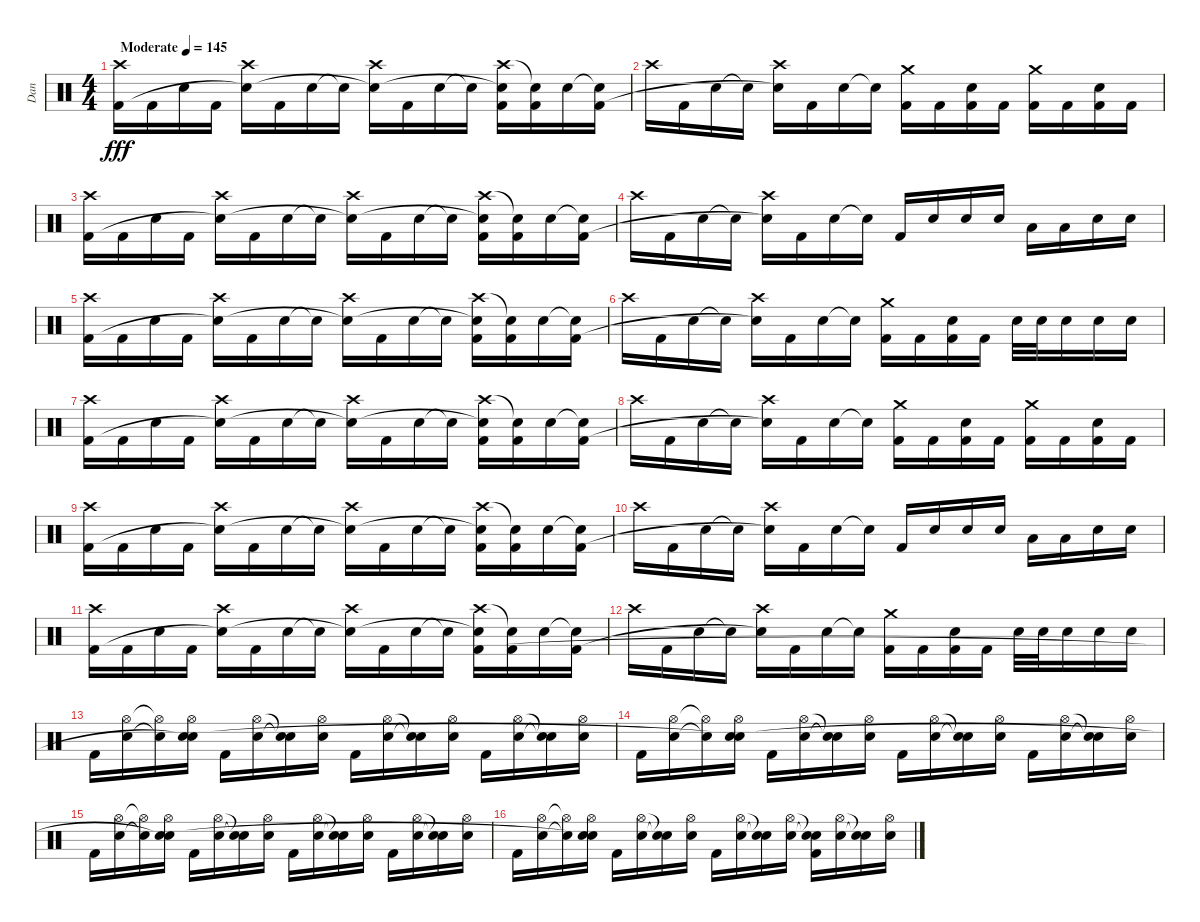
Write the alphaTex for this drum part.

\track ("Dan" "Dan") {instrument percussion}
\staff {score}
\articulation defaults
\ts (4 4)
\tempo (145 "Moderate")
\tempo 120
\tempo (145 "Moderate")
\clef neutral
\ks c
("Crash high (hit)" "Kick (hit) 2").16{dy fff} "Kick (hit) 2".16 "Electric Snare (hit)".16 "Kick (hit) 2".16 ("Crash high (hit)" "Snare (hit)"{t}).16 "Kick (hit) 2".16 "Electric Snare (hit)".16 "Snare (hit)"{t}.16 ("Crash high (hit)" "Snare (hit)"{t}).16 "Kick (hit) 2".16 "Electric Snare (hit)".16 "Snare (hit)"{t}.16 ("Crash high (hit)" "Snare (hit)"{t} "Kick (hit) 2").16 ("Snare (hit)"{t} "Kick (hit) 2").16 "Electric Snare (hit)".16 ("Snare (hit)"{t} "Kick (hit) 2").16 |
"Crash high (hit)".16 "Kick (hit) 2".16 "Electric Snare (hit)".16 "Snare (hit)"{t}.16 ("Crash high (hit)" "Snare (hit)"{t}).16 "Kick (hit) 2".16 "Electric Snare (hit)".16 "Snare (hit)"{t}.16 ("Crash medium (hit)" "Kick (hit) 2").16 "Kick (hit) 2".16 ("Electric Snare (hit)" "Kick (hit) 2").16 "Kick (hit) 2".16 ("Crash medium (hit)" "Kick (hit) 2").16 "Kick (hit) 2".16 ("Electric Snare (hit)" "Kick (hit) 2").16 "Kick (hit) 2".16 |
("Crash high (hit)" "Kick (hit) 2").16 "Kick (hit) 2".16 "Electric Snare (hit)".16 "Kick (hit) 2".16 ("Crash high (hit)" "Snare (hit)"{t}).16 "Kick (hit) 2".16 "Electric Snare (hit)".16 "Snare (hit)"{t}.16 ("Crash high (hit)" "Snare (hit)"{t}).16 "Kick (hit) 2".16 "Electric Snare (hit)".16 "Snare (hit)"{t}.16 ("Crash high (hit)" "Snare (hit)"{t} "Kick (hit) 2").16 ("Snare (hit)"{t} "Kick (hit) 2").16 "Electric Snare (hit)".16 ("Snare (hit)"{t} "Kick (hit) 2").16 |
"Crash high (hit)".16 "Kick (hit) 2".16 "Electric Snare (hit)".16 "Snare (hit)"{t}.16 ("Crash high (hit)" "Snare (hit)"{t}).16 "Kick (hit) 2".16 "Electric Snare (hit)".16 "Snare (hit)"{t}.16 "Kick (hit) 2".16 "Electric Snare (hit)".16 "Electric Snare (hit)".16 "Electric Snare (hit)".16 "Low Floor Tom (hit)".16 "Low Floor Tom (hit)".16 "Electric Snare (hit)".16 "Electric Snare (hit)".16 |
("Crash high (hit)" "Kick (hit) 2").16 "Kick (hit) 2".16 "Electric Snare (hit)".16 "Kick (hit) 2".16 ("Crash high (hit)" "Snare (hit)"{t}).16 "Kick (hit) 2".16 "Electric Snare (hit)".16 "Snare (hit)"{t}.16 ("Crash high (hit)" "Snare (hit)"{t}).16 "Kick (hit) 2".16 "Electric Snare (hit)".16 "Snare (hit)"{t}.16 ("Crash high (hit)" "Snare (hit)"{t} "Kick (hit) 2").16 ("Snare (hit)"{t} "Kick (hit) 2").16 "Electric Snare (hit)".16 ("Snare (hit)"{t} "Kick (hit) 2").16 |
"Crash high (hit)".16 "Kick (hit) 2".16 "Electric Snare (hit)".16 "Snare (hit)"{t}.16 ("Crash high (hit)" "Snare (hit)"{t}).16 "Kick (hit) 2".16 "Electric Snare (hit)".16 "Snare (hit)"{t}.16 ("Crash medium (hit)" "Kick (hit) 2").16 "Kick (hit) 2".16 ("Electric Snare (hit)" "Kick (hit) 2").16 "Kick (hit) 2".16 "Electric Snare (hit)".32 "Electric Snare (hit)".32 "Electric Snare (hit)".16 "Electric Snare (hit)".16 "Electric Snare (hit)".16 |
("Crash high (hit)" "Kick (hit) 2").16 "Kick (hit) 2".16 "Electric Snare (hit)".16 "Kick (hit) 2".16 ("Crash high (hit)" "Snare (hit)"{t}).16 "Kick (hit) 2".16 "Electric Snare (hit)".16 "Snare (hit)"{t}.16 ("Crash high (hit)" "Snare (hit)"{t}).16 "Kick (hit) 2".16 "Electric Snare (hit)".16 "Snare (hit)"{t}.16 ("Crash high (hit)" "Snare (hit)"{t} "Kick (hit) 2").16 ("Snare (hit)"{t} "Kick (hit) 2").16 "Electric Snare (hit)".16 ("Snare (hit)"{t} "Kick (hit) 2").16 |
"Crash high (hit)".16 "Kick (hit) 2".16 "Electric Snare (hit)".16 "Snare (hit)"{t}.16 ("Crash high (hit)" "Snare (hit)"{t}).16 "Kick (hit) 2".16 "Electric Snare (hit)".16 "Snare (hit)"{t}.16 ("Crash medium (hit)" "Kick (hit) 2").16 "Kick (hit) 2".16 ("Electric Snare (hit)" "Kick (hit) 2").16 "Kick (hit) 2".16 ("Crash medium (hit)" "Kick (hit) 2").16 "Kick (hit) 2".16 ("Electric Snare (hit)" "Kick (hit) 2").16 "Kick (hit) 2".16 |
("Crash high (hit)" "Kick (hit) 2").16 "Kick (hit) 2".16 "Electric Snare (hit)".16 "Kick (hit) 2".16 ("Crash high (hit)" "Snare (hit)"{t}).16 "Kick (hit) 2".16 "Electric Snare (hit)".16 "Snare (hit)"{t}.16 ("Crash high (hit)" "Snare (hit)"{t}).16 "Kick (hit) 2".16 "Electric Snare (hit)".16 "Snare (hit)"{t}.16 ("Crash high (hit)" "Snare (hit)"{t} "Kick (hit) 2").16 ("Snare (hit)"{t} "Kick (hit) 2").16 "Electric Snare (hit)".16 ("Snare (hit)"{t} "Kick (hit) 2").16 |
"Crash high (hit)".16 "Kick (hit) 2".16 "Electric Snare (hit)".16 "Snare (hit)"{t}.16 ("Crash high (hit)" "Snare (hit)"{t}).16 "Kick (hit) 2".16 "Electric Snare (hit)".16 "Snare (hit)"{t}.16 "Kick (hit) 2".16 "Electric Snare (hit)".16 "Electric Snare (hit)".16 "Electric Snare (hit)".16 "Low Floor Tom (hit)".16 "Low Floor Tom (hit)".16 "Electric Snare (hit)".16 "Electric Snare (hit)".16 |
("Crash high (hit)" "Kick (hit) 2").16 "Kick (hit) 2".16 "Electric Snare (hit)".16 "Kick (hit) 2".16 ("Crash high (hit)" "Snare (hit)"{t}).16 "Kick (hit) 2".16 "Electric Snare (hit)".16 "Snare (hit)"{t}.16 ("Crash high (hit)" "Snare (hit)"{t}).16 "Kick (hit) 2".16 "Electric Snare (hit)".16 "Snare (hit)"{t}.16 ("Crash high (hit)" "Snare (hit)"{t} "Kick (hit) 2").16 ("Snare (hit)"{t} "Kick (hit) 2").16 "Electric Snare (hit)".16 ("Snare (hit)"{t} "Kick (hit) 2").16 |
"Crash high (hit)".16 "Kick (hit) 2".16 "Electric Snare (hit)".16 "Snare (hit)"{t}.16 ("Crash high (hit)" "Snare (hit)"{t}).16 "Kick (hit) 2".16 "Electric Snare (hit)".16 "Snare (hit)"{t}.16 ("Crash medium (hit)" "Kick (hit) 2").16 "Kick (hit) 2".16 ("Electric Snare (hit)" "Kick (hit) 2").16 "Kick (hit) 2".16 "Electric Snare (hit)".32 "Electric Snare (hit)".32 "Electric Snare (hit)".16 "Electric Snare (hit)".16 "Electric Snare (hit)".16 |
"Kick (hit) 2".16 ("Hi-Hat (open)" "Electric Snare (hit)").16 ("Hi-Hat (open)"{t} "Snare (hit)"{t}).16 ("Hi-Hat (open)" "Electric Snare (hit)" "Snare (hit)"{t}).16 "Kick (hit) 2".16 ("Hi-Hat (open)" "Electric Snare (hit)").16 ("Snare (hit)"{t} "Snare (hit)"{t}).16 ("Hi-Hat (open)" "Electric Snare (hit)").16 "Kick (hit) 2".16 ("Hi-Hat (open)" "Electric Snare (hit)").16 ("Snare (hit)"{t} "Snare (hit)"{t}).16 ("Hi-Hat (open)" "Electric Snare (hit)").16 "Kick (hit) 2".16 ("Hi-Hat (open)" "Electric Snare (hit)").16 ("Snare (hit)"{t} "Snare (hit)"{t}).16 ("Hi-Hat (open)" "Electric Snare (hit)").16 |
"Kick (hit) 2".16 ("Hi-Hat (open)" "Electric Snare (hit)").16 ("Hi-Hat (open)"{t} "Snare (hit)"{t}).16 ("Hi-Hat (open)" "Electric Snare (hit)" "Snare (hit)"{t}).16 "Kick (hit) 2".16 ("Hi-Hat (open)" "Electric Snare (hit)").16 ("Snare (hit)"{t} "Snare (hit)"{t}).16 ("Hi-Hat (open)" "Electric Snare (hit)").16 "Kick (hit) 2".16 ("Hi-Hat (open)" "Electric Snare (hit)").16 ("Snare (hit)"{t} "Snare (hit)"{t}).16 ("Hi-Hat (open)" "Electric Snare (hit)").16 "Kick (hit) 2".16 ("Hi-Hat (open)" "Electric Snare (hit)").16 ("Snare (hit)"{t} "Snare (hit)"{t}).16 ("Hi-Hat (open)" "Electric Snare (hit)").16 |
"Kick (hit) 2".16 ("Hi-Hat (open)" "Electric Snare (hit)").16 ("Hi-Hat (open)"{t} "Snare (hit)"{t}).16 ("Hi-Hat (open)" "Electric Snare (hit)" "Snare (hit)"{t}).16 "Kick (hit) 2".16 ("Hi-Hat (open)" "Electric Snare (hit)").16 ("Snare (hit)"{t} "Snare (hit)"{t}).16 ("Hi-Hat (open)" "Electric Snare (hit)").16 "Kick (hit) 2".16 ("Hi-Hat (open)" "Electric Snare (hit)").16 ("Snare (hit)"{t} "Snare (hit)"{t}).16 ("Hi-Hat (open)" "Electric Snare (hit)").16 "Kick (hit) 2".16 ("Hi-Hat (open)" "Electric Snare (hit)").16 ("Snare (hit)"{t} "Snare (hit)"{t}).16 ("Hi-Hat (open)" "Electric Snare (hit)").16 |
"Kick (hit) 2".16 ("Hi-Hat (open)" "Electric Snare (hit)").16 ("Hi-Hat (open)"{t} "Snare (hit)"{t}).16 ("Hi-Hat (open)" "Electric Snare (hit)" "Snare (hit)"{t}).16 "Kick (hit) 2".16 ("Hi-Hat (open)" "Electric Snare (hit)").16 ("Snare (hit)"{t} "Snare (hit)"{t}).16 ("Hi-Hat (open)" "Electric Snare (hit)").16 "Kick (hit) 2".16 ("Hi-Hat (open)" "Electric Snare (hit)").16 ("Snare (hit)"{t} "Snare (hit)"{t}).16 ("Hi-Hat (open)" "Electric Snare (hit)").16 ("Snare (hit)"{t} "Snare (hit)"{t} "Kick (hit) 2").16 ("Hi-Hat (open)" "Electric Snare (hit)").16 ("Snare (hit)"{t} "Snare (hit)"{t}).16 ("Hi-Hat (open)" "Electric Snare (hit)").16
